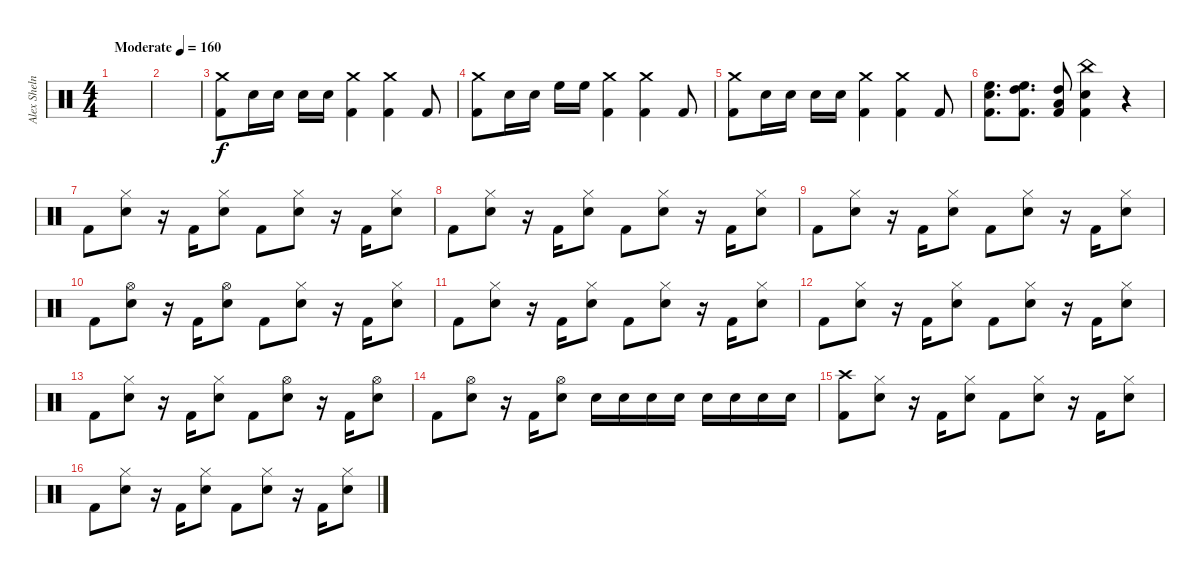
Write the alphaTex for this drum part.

\track ("Alex Shelnutt" "Alex Sheln") {instrument percussion}
\staff {score}
\articulation defaults
\ts (4 4)
\tempo (160 "Moderate")
\clef neutral
\ks c
|
|
("Crash medium (hit)" "Kick (hit) 2").8 "Electric Snare (hit)".16 "Electric Snare (hit)".16 "Electric Snare (hit)".16 "Electric Snare (hit)".16 ("Crash medium (hit)" "Kick (hit) 2").4 ("Crash medium (hit)" "Kick (hit) 2").4 "Kick (hit) 2".8 |
("Crash medium (hit)" "Kick (hit) 2").8 "Electric Snare (hit)".16 "Electric Snare (hit)".16 "High Floor Tom (hit)".16 "High Floor Tom (hit)".16 ("Crash medium (hit)" "Kick (hit) 2").4 ("Crash medium (hit)" "Kick (hit) 2").4 "Kick (hit) 2".8 |
("Crash medium (hit)" "Kick (hit) 2").8 "Electric Snare (hit)".16 "Electric Snare (hit)".16 "Electric Snare (hit)".16 "Electric Snare (hit)".16 ("Crash medium (hit)" "Kick (hit) 2").4 ("Crash medium (hit)" "Kick (hit) 2").4 "Kick (hit) 2".8 |
("High Floor Tom (hit)" "Electric Snare (hit)" "Kick (hit) 2").8{d} ("High Tom (hit)" "High Floor Tom (hit)" "Kick (hit) 2").8{d} ("Low Floor Tom (hit)" "High Tom (hit)" "Kick (hit) 2").8 ("China (hit)" "Electric Snare (hit)" "Kick (hit) 2").4 r.4 |
"Kick (hit) 2".8 ("Hi-Hat (closed)" "Electric Snare (hit)").8 r.16 "Kick (hit) 2".16 ("Hi-Hat (closed)" "Electric Snare (hit)").8 "Kick (hit) 2".8 ("Hi-Hat (closed)" "Electric Snare (hit)").8 r.16 "Kick (hit) 2".16 ("Hi-Hat (closed)" "Electric Snare (hit)").8 |
"Kick (hit) 2".8 ("Hi-Hat (closed)" "Electric Snare (hit)").8 r.16 "Kick (hit) 2".16 ("Hi-Hat (closed)" "Electric Snare (hit)").8 "Kick (hit) 2".8 ("Hi-Hat (closed)" "Electric Snare (hit)").8 r.16 "Kick (hit) 2".16 ("Hi-Hat (closed)" "Electric Snare (hit)").8 |
"Kick (hit) 2".8 ("Hi-Hat (closed)" "Electric Snare (hit)").8 r.16 "Kick (hit) 2".16 ("Hi-Hat (closed)" "Electric Snare (hit)").8 "Kick (hit) 2".8 ("Hi-Hat (closed)" "Electric Snare (hit)").8 r.16 "Kick (hit) 2".16 ("Hi-Hat (closed)" "Electric Snare (hit)").8 |
"Kick (hit) 2".8 ("Hi-Hat (open)" "Electric Snare (hit)").8 r.16 "Kick (hit) 2".16 ("Hi-Hat (open)" "Electric Snare (hit)").8 "Kick (hit) 2".8 ("Hi-Hat (closed)" "Electric Snare (hit)").8 r.16 "Kick (hit) 2".16 ("Hi-Hat (closed)" "Electric Snare (hit)").8 |
"Kick (hit) 2".8 ("Hi-Hat (closed)" "Electric Snare (hit)").8 r.16 "Kick (hit) 2".16 ("Hi-Hat (closed)" "Electric Snare (hit)").8 "Kick (hit) 2".8 ("Hi-Hat (closed)" "Electric Snare (hit)").8 r.16 "Kick (hit) 2".16 ("Hi-Hat (closed)" "Electric Snare (hit)").8 |
"Kick (hit) 2".8 ("Hi-Hat (closed)" "Electric Snare (hit)").8 r.16 "Kick (hit) 2".16 ("Hi-Hat (closed)" "Electric Snare (hit)").8 "Kick (hit) 2".8 ("Hi-Hat (closed)" "Electric Snare (hit)").8 r.16 "Kick (hit) 2".16 ("Hi-Hat (closed)" "Electric Snare (hit)").8 |
"Kick (hit) 2".8 ("Hi-Hat (closed)" "Electric Snare (hit)").8 r.16 "Kick (hit) 2".16 ("Hi-Hat (closed)" "Electric Snare (hit)").8 "Kick (hit) 2".8 ("Hi-Hat (open)" "Electric Snare (hit)").8 r.16 "Kick (hit) 2".16 ("Hi-Hat (open)" "Electric Snare (hit)").8 |
"Kick (hit) 2".8 ("Hi-Hat (open)" "Electric Snare (hit)").8 r.16 "Kick (hit) 2".16 ("Hi-Hat (open)" "Electric Snare (hit)").8 "Electric Snare (hit)".16 "Electric Snare (hit)".16 "Electric Snare (hit)".16 "Electric Snare (hit)".16 "Electric Snare (hit)".16 "Electric Snare (hit)".16 "Electric Snare (hit)".16 "Electric Snare (hit)".16 |
("Crash high (hit)" "Kick (hit) 2").8 ("Hi-Hat (closed)" "Electric Snare (hit)").8 r.16 "Kick (hit) 2".16 ("Hi-Hat (closed)" "Electric Snare (hit)").8 "Kick (hit) 2".8 ("Hi-Hat (closed)" "Electric Snare (hit)").8 r.16 "Kick (hit) 2".16 ("Hi-Hat (closed)" "Electric Snare (hit)").8 |
"Kick (hit) 2".8 ("Hi-Hat (closed)" "Electric Snare (hit)").8 r.16 "Kick (hit) 2".16 ("Hi-Hat (closed)" "Electric Snare (hit)").8 "Kick (hit) 2".8 ("Hi-Hat (closed)" "Electric Snare (hit)").8 r.16 "Kick (hit) 2".16 ("Hi-Hat (closed)" "Electric Snare (hit)").8
